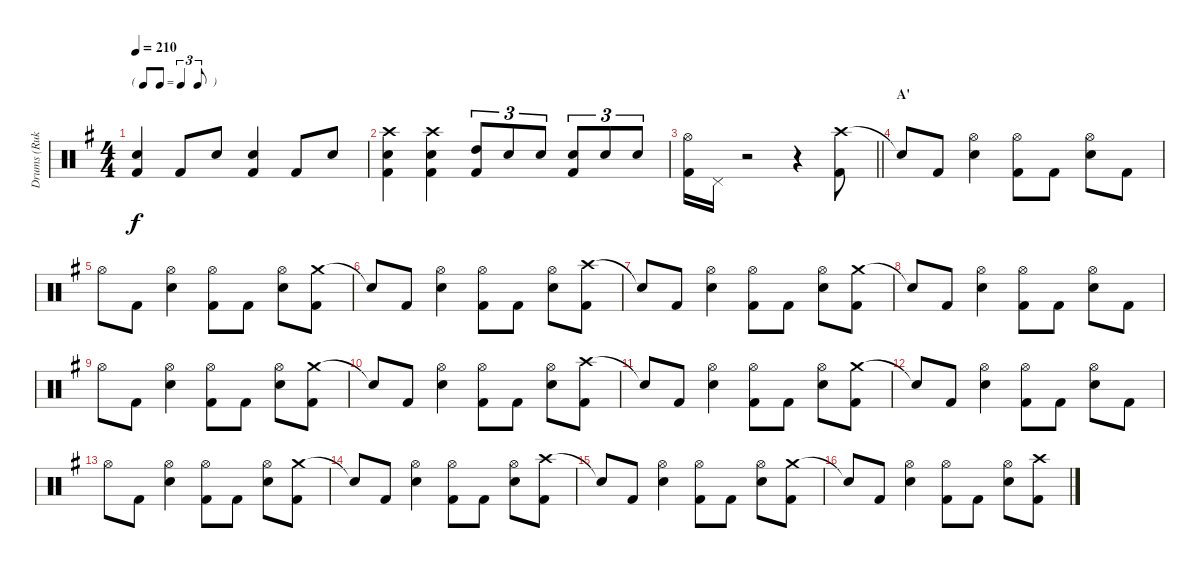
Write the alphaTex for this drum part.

\track ("Drums (Ruka)" "Drums (Ruk") {instrument percussion}
\staff {score}
\articulation defaults
\ts (4 4)
\tf triplet8th
\tempo 210
\clef neutral
\ks g
("Electric Snare (hit)" "Kick (hit) 2").4{dy f} "Kick (hit) 2".8 "Electric Snare (hit)".8 ("Electric Snare (hit)" "Kick (hit) 2").4 "Kick (hit) 2".8 "Electric Snare (hit)".8 |
("Crash high (hit)" "Electric Snare (hit)" "Kick (hit) 2").4 ("Crash high (hit)" "Electric Snare (hit)" "Kick (hit) 2").4 ("High Tom (hit)" "Kick (hit) 2").8{tu (3 2)} "Electric Snare (hit)".8{tu (3 2)} "Electric Snare (hit)".8{tu (3 2)} ("Electric Snare (hit)" "Kick (hit) 2").8{tu (3 2)} "Electric Snare (hit)".8{tu (3 2)} "Electric Snare (hit)".8{tu (3 2)} |
\barLineRight lightlight
("Hi-Hat (open)" "Kick (hit) 2").16 "Pedal Hi-Hat (hit)".16 r.2 r.4 ("Crash high (hit)" "Kick (hit) 2").8 |
\section ("" "A'")
"Snare (hit)"{t}.8 "Kick (hit) 2".8 ("Hi-Hat (open)" "Electric Snare (hit)").4 ("Hi-Hat (open)" "Kick (hit) 2").8 "Kick (hit) 2".8 ("Hi-Hat (open)" "Electric Snare (hit)").8 "Kick (hit) 2".8 |
"Hi-Hat (open)".8 "Kick (hit) 2".8 ("Hi-Hat (open)" "Electric Snare (hit)").4 ("Hi-Hat (open)" "Kick (hit) 2").8 "Kick (hit) 2".8 ("Hi-Hat (open)" "Electric Snare (hit)").8 ("Crash medium (hit)" "Kick (hit) 2").8 |
"Snare (hit)"{t}.8 "Kick (hit) 2".8 ("Hi-Hat (open)" "Electric Snare (hit)").4 ("Hi-Hat (open)" "Kick (hit) 2").8 "Kick (hit) 2".8 ("Hi-Hat (open)" "Electric Snare (hit)").8 ("Crash high (hit)" "Kick (hit) 2").8 |
"Snare (hit)"{t}.8 "Kick (hit) 2".8 ("Hi-Hat (open)" "Electric Snare (hit)").4 ("Hi-Hat (open)" "Kick (hit) 2").8 "Kick (hit) 2".8 ("Hi-Hat (open)" "Electric Snare (hit)").8 ("Crash medium (hit)" "Kick (hit) 2").8 |
"Snare (hit)"{t}.8 "Kick (hit) 2".8 ("Hi-Hat (open)" "Electric Snare (hit)").4 ("Hi-Hat (open)" "Kick (hit) 2").8 "Kick (hit) 2".8 ("Hi-Hat (open)" "Electric Snare (hit)").8 "Kick (hit) 2".8 |
"Hi-Hat (open)".8 "Kick (hit) 2".8 ("Hi-Hat (open)" "Electric Snare (hit)").4 ("Hi-Hat (open)" "Kick (hit) 2").8 "Kick (hit) 2".8 ("Hi-Hat (open)" "Electric Snare (hit)").8 ("Crash medium (hit)" "Kick (hit) 2").8 |
"Snare (hit)"{t}.8 "Kick (hit) 2".8 ("Hi-Hat (open)" "Electric Snare (hit)").4 ("Hi-Hat (open)" "Kick (hit) 2").8 "Kick (hit) 2".8 ("Hi-Hat (open)" "Electric Snare (hit)").8 ("Crash high (hit)" "Kick (hit) 2").8 |
"Snare (hit)"{t}.8 "Kick (hit) 2".8 ("Hi-Hat (open)" "Electric Snare (hit)").4 ("Hi-Hat (open)" "Kick (hit) 2").8 "Kick (hit) 2".8 ("Hi-Hat (open)" "Electric Snare (hit)").8 ("Crash medium (hit)" "Kick (hit) 2").8 |
"Snare (hit)"{t}.8 "Kick (hit) 2".8 ("Hi-Hat (open)" "Electric Snare (hit)").4 ("Hi-Hat (open)" "Kick (hit) 2").8 "Kick (hit) 2".8 ("Hi-Hat (open)" "Electric Snare (hit)").8 "Kick (hit) 2".8 |
"Hi-Hat (open)".8 "Kick (hit) 2".8 ("Hi-Hat (open)" "Electric Snare (hit)").4 ("Hi-Hat (open)" "Kick (hit) 2").8 "Kick (hit) 2".8 ("Hi-Hat (open)" "Electric Snare (hit)").8 ("Crash medium (hit)" "Kick (hit) 2").8 |
"Snare (hit)"{t}.8 "Kick (hit) 2".8 ("Hi-Hat (open)" "Electric Snare (hit)").4 ("Hi-Hat (open)" "Kick (hit) 2").8 "Kick (hit) 2".8 ("Hi-Hat (open)" "Electric Snare (hit)").8 ("Crash high (hit)" "Kick (hit) 2").8 |
"Snare (hit)"{t}.8 "Kick (hit) 2".8 ("Hi-Hat (open)" "Electric Snare (hit)").4 ("Hi-Hat (open)" "Kick (hit) 2").8 "Kick (hit) 2".8 ("Hi-Hat (open)" "Electric Snare (hit)").8 ("Crash medium (hit)" "Kick (hit) 2").8 |
"Snare (hit)"{t}.8 "Kick (hit) 2".8 ("Hi-Hat (open)" "Electric Snare (hit)").4 ("Hi-Hat (open)" "Kick (hit) 2").8 "Kick (hit) 2".8 ("Hi-Hat (open)" "Electric Snare (hit)").8 ("Crash high (hit)" "Kick (hit) 2").8
